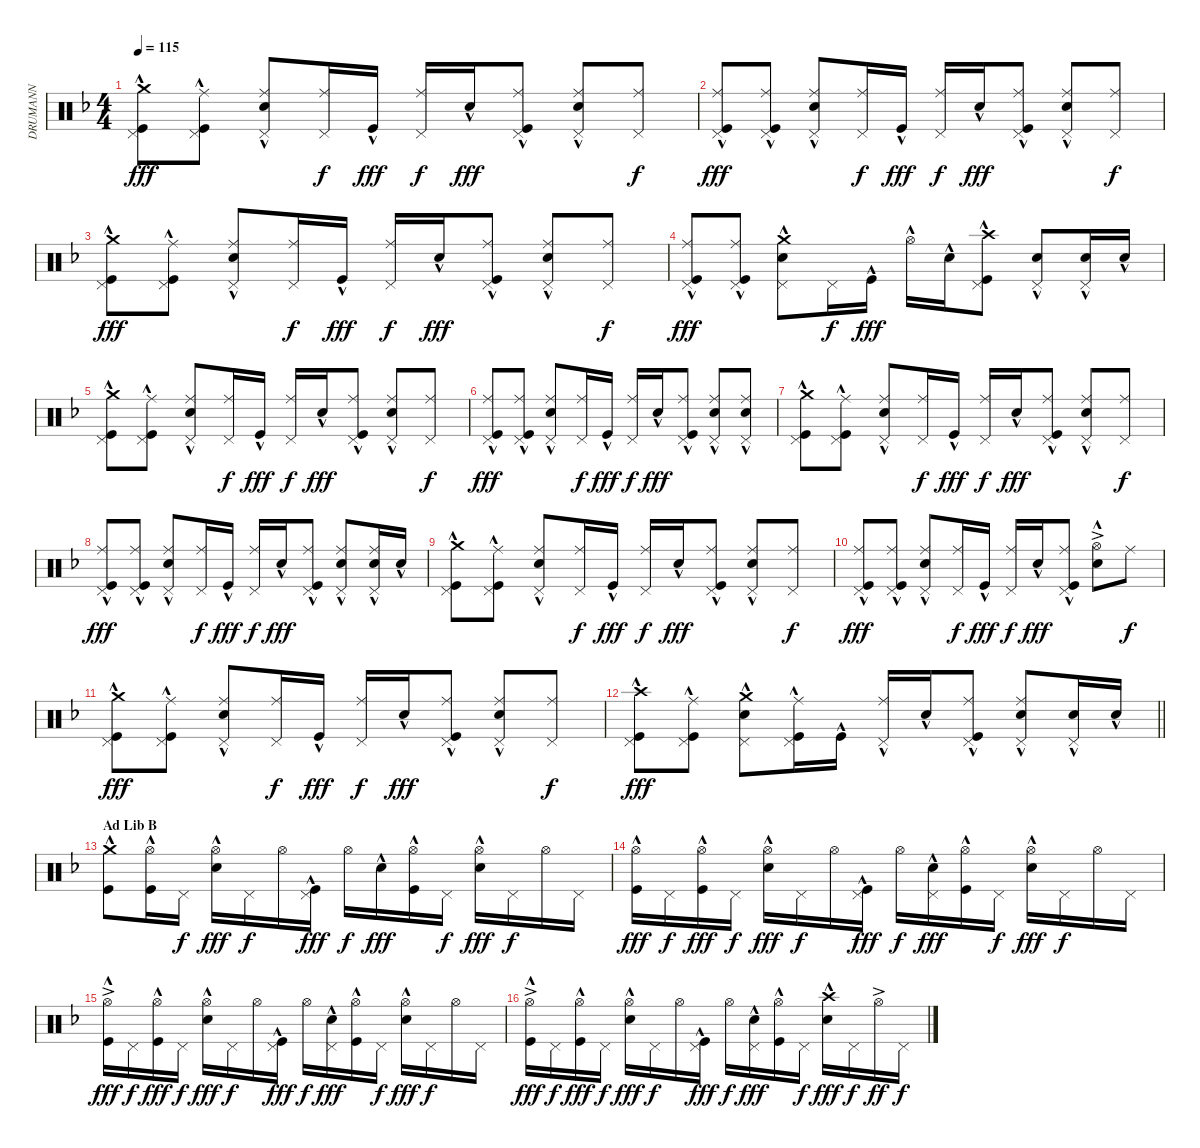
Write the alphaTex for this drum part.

\track ("DRUMANN" "DRUMANN") {instrument percussion}
\staff {score}
\articulation defaults
\ts (4 4)
\tempo 115
\clef neutral
\ks f
("Crash medium (hit)"{hac} "Pedal Hi-Hat (hit)" "Kick (hit)"{hac}).8{dy fff} ("Ride (middle)" "Pedal Hi-Hat (hit)" "Kick (hit)"{hac}).8 ("Ride (middle)" "Snare (hit) 2"{hac} "Pedal Hi-Hat (hit)").8 ("Ride (middle)" "Pedal Hi-Hat (hit)").16{dy f} "Kick (hit)"{hac}.16{dy fff} ("Ride (middle)" "Pedal Hi-Hat (hit)").16{dy f} "Snare (hit) 2"{hac}.16{dy fff} ("Ride (middle)" "Pedal Hi-Hat (hit)" "Kick (hit)"{hac}).8 ("Ride (middle)" "Snare (hit) 2"{hac} "Pedal Hi-Hat (hit)").8 ("Ride (middle)" "Pedal Hi-Hat (hit)").8{dy f} |
("Ride (middle)" "Pedal Hi-Hat (hit)" "Kick (hit)"{hac}).8{dy fff} ("Ride (middle)" "Pedal Hi-Hat (hit)" "Kick (hit)"{hac}).8 ("Ride (middle)" "Snare (hit) 2"{hac} "Pedal Hi-Hat (hit)").8 ("Ride (middle)" "Pedal Hi-Hat (hit)").16{dy f} "Kick (hit)"{hac}.16{dy fff} ("Ride (middle)" "Pedal Hi-Hat (hit)").16{dy f} "Snare (hit) 2"{hac}.16{dy fff} ("Ride (middle)" "Pedal Hi-Hat (hit)" "Kick (hit)"{hac}).8 ("Ride (middle)" "Snare (hit) 2"{hac} "Pedal Hi-Hat (hit)").8 ("Ride (middle)" "Pedal Hi-Hat (hit)").8{dy f} |
("Crash medium (hit)"{hac} "Pedal Hi-Hat (hit)" "Kick (hit)"{hac}).8{dy fff} ("Ride (middle)" "Pedal Hi-Hat (hit)" "Kick (hit)"{hac}).8 ("Ride (middle)" "Snare (hit) 2"{hac} "Pedal Hi-Hat (hit)").8 ("Ride (middle)" "Pedal Hi-Hat (hit)").16{dy f} "Kick (hit)"{hac}.16{dy fff} ("Ride (middle)" "Pedal Hi-Hat (hit)").16{dy f} "Snare (hit) 2"{hac}.16{dy fff} ("Ride (middle)" "Pedal Hi-Hat (hit)" "Kick (hit)"{hac}).8 ("Ride (middle)" "Snare (hit) 2"{hac} "Pedal Hi-Hat (hit)").8 ("Ride (middle)" "Pedal Hi-Hat (hit)").8{dy f} |
("Ride (middle)" "Pedal Hi-Hat (hit)" "Kick (hit)"{hac}).8{dy fff} ("Ride (middle)" "Pedal Hi-Hat (hit)" "Kick (hit)"{hac}).8 ("Crash medium (hit)"{hac} "Snare (hit) 2"{hac} "Pedal Hi-Hat (hit)").8 "Pedal Hi-Hat (hit)".16{dy f} "Kick (hit)"{hac}.16{dy fff} "Hi-Hat (open)"{hac}.16 "Snare (hit) 2"{hac}.16 ("Crash high (hit)"{hac} "Pedal Hi-Hat (hit)" "Kick (hit)"{hac}).8 ("Snare (hit) 2"{hac} "Pedal Hi-Hat (hit)").8 ("Snare (hit) 2"{hac} "Pedal Hi-Hat (hit)").16 "Snare (hit) 2"{hac}.16 |
("Crash medium (hit)"{hac} "Pedal Hi-Hat (hit)" "Kick (hit)"{hac}).8 ("Ride (middle)" "Pedal Hi-Hat (hit)" "Kick (hit)"{hac}).8 ("Ride (middle)" "Snare (hit) 2"{hac} "Pedal Hi-Hat (hit)").8 ("Ride (middle)" "Pedal Hi-Hat (hit)").16{dy f} "Kick (hit)"{hac}.16{dy fff} ("Ride (middle)" "Pedal Hi-Hat (hit)").16{dy f} "Snare (hit) 2"{hac}.16{dy fff} ("Ride (middle)" "Pedal Hi-Hat (hit)" "Kick (hit)"{hac}).8 ("Ride (middle)" "Snare (hit) 2"{hac} "Pedal Hi-Hat (hit)").8 ("Ride (middle)" "Pedal Hi-Hat (hit)").8{dy f} |
("Ride (middle)" "Pedal Hi-Hat (hit)" "Kick (hit)"{hac}).8{dy fff} ("Ride (middle)" "Pedal Hi-Hat (hit)" "Kick (hit)"{hac}).8 ("Ride (middle)" "Snare (hit) 2"{hac} "Pedal Hi-Hat (hit)").8 ("Ride (middle)" "Pedal Hi-Hat (hit)").16{dy f} "Kick (hit)"{hac}.16{dy fff} ("Ride (middle)" "Pedal Hi-Hat (hit)").16{dy f} "Snare (hit) 2"{hac}.16{dy fff} ("Ride (middle)" "Pedal Hi-Hat (hit)" "Kick (hit)"{hac}).8 ("Ride (middle)" "Snare (hit) 2"{hac} "Pedal Hi-Hat (hit)").8 ("Ride (middle)" "Snare (hit) 2"{hac} "Pedal Hi-Hat (hit)").8 |
("Crash medium (hit)"{hac} "Pedal Hi-Hat (hit)" "Kick (hit)"{hac}).8 ("Ride (middle)" "Pedal Hi-Hat (hit)" "Kick (hit)"{hac}).8 ("Ride (middle)" "Snare (hit) 2"{hac} "Pedal Hi-Hat (hit)").8 ("Ride (middle)" "Pedal Hi-Hat (hit)").16{dy f} "Kick (hit)"{hac}.16{dy fff} ("Ride (middle)" "Pedal Hi-Hat (hit)").16{dy f} "Snare (hit) 2"{hac}.16{dy fff} ("Ride (middle)" "Pedal Hi-Hat (hit)" "Kick (hit)"{hac}).8 ("Ride (middle)" "Snare (hit) 2"{hac} "Pedal Hi-Hat (hit)").8 ("Ride (middle)" "Pedal Hi-Hat (hit)").8{dy f} |
("Ride (middle)" "Pedal Hi-Hat (hit)" "Kick (hit)"{hac}).8{dy fff} ("Ride (middle)" "Pedal Hi-Hat (hit)" "Kick (hit)"{hac}).8 ("Ride (middle)" "Snare (hit) 2"{hac} "Pedal Hi-Hat (hit)").8 ("Ride (middle)" "Pedal Hi-Hat (hit)").16{dy f} "Kick (hit)"{hac}.16{dy fff} ("Ride (middle)" "Pedal Hi-Hat (hit)").16{dy f} "Snare (hit) 2"{hac}.16{dy fff} ("Ride (middle)" "Pedal Hi-Hat (hit)" "Kick (hit)"{hac}).8 ("Ride (middle)" "Snare (hit) 2"{hac} "Pedal Hi-Hat (hit)").8 ("Ride (middle)" "Snare (hit) 2"{hac} "Pedal Hi-Hat (hit)").16 "Snare (hit) 2"{hac}.16 |
("Crash medium (hit)"{hac} "Pedal Hi-Hat (hit)" "Kick (hit)"{hac}).8 ("Ride (middle)" "Pedal Hi-Hat (hit)" "Kick (hit)"{hac}).8 ("Ride (middle)" "Snare (hit) 2"{hac} "Pedal Hi-Hat (hit)").8 ("Ride (middle)" "Pedal Hi-Hat (hit)").16{dy f} "Kick (hit)"{hac}.16{dy fff} ("Ride (middle)" "Pedal Hi-Hat (hit)").16{dy f} "Snare (hit) 2"{hac}.16{dy fff} ("Ride (middle)" "Pedal Hi-Hat (hit)" "Kick (hit)"{hac}).8 ("Ride (middle)" "Snare (hit) 2"{hac} "Pedal Hi-Hat (hit)").8 ("Ride (middle)" "Pedal Hi-Hat (hit)").8{dy f} |
("Ride (middle)" "Pedal Hi-Hat (hit)" "Kick (hit)"{hac}).8{dy fff} ("Ride (middle)" "Pedal Hi-Hat (hit)" "Kick (hit)"{hac}).8 ("Ride (middle)" "Snare (hit) 2"{hac} "Pedal Hi-Hat (hit)").8 ("Ride (middle)" "Pedal Hi-Hat (hit)").16{dy f} "Kick (hit)"{hac}.16{dy fff} ("Ride (middle)" "Pedal Hi-Hat (hit)").16{dy f} "Snare (hit) 2"{hac}.16{dy fff} ("Ride (middle)" "Pedal Hi-Hat (hit)" "Kick (hit)"{hac}).8 ("Hi-Hat (open)"{ac} "Snare (hit) 2"{hac}).8 "Ride (middle)".8{dy f} |
("Crash medium (hit)"{hac} "Pedal Hi-Hat (hit)" "Kick (hit)"{hac}).8{dy fff} ("Ride (middle)" "Pedal Hi-Hat (hit)" "Kick (hit)"{hac}).8 ("Ride (middle)" "Snare (hit) 2"{hac} "Pedal Hi-Hat (hit)").8 ("Ride (middle)" "Pedal Hi-Hat (hit)").16{dy f} "Kick (hit)"{hac}.16{dy fff} ("Ride (middle)" "Pedal Hi-Hat (hit)").16{dy f} "Snare (hit) 2"{hac}.16{dy fff} ("Ride (middle)" "Pedal Hi-Hat (hit)" "Kick (hit)"{hac}).8 ("Ride (middle)" "Snare (hit) 2"{hac} "Pedal Hi-Hat (hit)").8 ("Ride (middle)" "Pedal Hi-Hat (hit)").8{dy f} |
\barLineRight lightlight
("Crash high (hit)"{hac} "Pedal Hi-Hat (hit)" "Kick (hit)"{hac}).8{dy fff} ("Ride (middle)" "Pedal Hi-Hat (hit)" "Kick (hit)"{hac}).8 ("Crash medium (hit)"{hac} "Snare (hit) 2"{hac} "Pedal Hi-Hat (hit)").8 ("Ride (middle)" "Pedal Hi-Hat (hit)" "Kick (hit)"{hac}).16 "Kick (hit)"{hac}.16 ("Ride (middle)"{hac} "Pedal Hi-Hat (hit)").16 "Snare (hit) 2"{hac}.16 ("Ride (middle)"{hac} "Pedal Hi-Hat (hit)" "Kick (hit)"{hac}).8 ("Ride (middle)" "Snare (hit) 2"{hac} "Pedal Hi-Hat (hit)").8 ("Snare (hit) 2"{hac} "Pedal Hi-Hat (hit)").16 "Snare (hit) 2"{hac}.16 |
\section ("" "Ad Lib B")
("Crash medium (hit)"{hac} "Kick (hit)"{hac}).8 ("Hi-Hat (open)" "Kick (hit)"{hac}).16 "Pedal Hi-Hat (hit)".16{dy f} ("Hi-Hat (open)" "Snare (hit) 2"{hac}).16{dy fff} "Pedal Hi-Hat (hit)".16{dy f} "Hi-Hat (open)".16 ("Pedal Hi-Hat (hit)" "Kick (hit)"{hac}).16{dy fff} "Hi-Hat (open)".16{dy f} "Snare (hit) 2"{hac}.16{dy fff} ("Hi-Hat (open)" "Kick (hit)"{hac}).16 "Pedal Hi-Hat (hit)".16{dy f} ("Hi-Hat (open)" "Snare (hit) 2"{hac}).16{dy fff} "Pedal Hi-Hat (hit)".16{dy f} "Hi-Hat (open)".16 "Pedal Hi-Hat (hit)".16 |
("Hi-Hat (open)" "Kick (hit)"{hac}).16{dy fff} "Pedal Hi-Hat (hit)".16{dy f} ("Hi-Hat (open)" "Kick (hit)"{hac}).16{dy fff} "Pedal Hi-Hat (hit)".16{dy f} ("Hi-Hat (open)" "Snare (hit) 2"{hac}).16{dy fff} "Pedal Hi-Hat (hit)".16{dy f} "Hi-Hat (open)".16 ("Pedal Hi-Hat (hit)" "Kick (hit)"{hac}).16{dy fff} "Hi-Hat (open)".16{dy f} ("Snare (hit) 2"{hac} "Pedal Hi-Hat (hit)").16{dy fff} ("Hi-Hat (open)" "Kick (hit)"{hac}).16 "Pedal Hi-Hat (hit)".16{dy f} ("Hi-Hat (open)" "Snare (hit) 2"{hac}).16{dy fff} "Pedal Hi-Hat (hit)".16{dy f} "Hi-Hat (open)".16 "Pedal Hi-Hat (hit)".16 |
("Hi-Hat (open)"{ac} "Kick (hit)"{hac}).16{dy fff} "Pedal Hi-Hat (hit)".16{dy f} ("Hi-Hat (open)" "Kick (hit)"{hac}).16{dy fff} "Pedal Hi-Hat (hit)".16{dy f} ("Hi-Hat (open)" "Snare (hit) 2"{hac}).16{dy fff} "Pedal Hi-Hat (hit)".16{dy f} "Hi-Hat (open)".16 ("Pedal Hi-Hat (hit)" "Kick (hit)"{hac}).16{dy fff} "Hi-Hat (open)".16{dy f} ("Snare (hit) 2"{hac} "Pedal Hi-Hat (hit)").16{dy fff} ("Hi-Hat (open)" "Kick (hit)"{hac}).16 "Pedal Hi-Hat (hit)".16{dy f} ("Hi-Hat (open)" "Snare (hit) 2"{hac}).16{dy fff} "Pedal Hi-Hat (hit)".16{dy f} "Hi-Hat (open)".16 "Pedal Hi-Hat (hit)".16 |
("Hi-Hat (open)"{ac} "Kick (hit)"{hac}).16{dy fff} "Pedal Hi-Hat (hit)".16{dy f} ("Hi-Hat (open)" "Kick (hit)"{hac}).16{dy fff} "Pedal Hi-Hat (hit)".16{dy f} ("Hi-Hat (open)" "Snare (hit) 2"{hac}).16{dy fff} "Pedal Hi-Hat (hit)".16{dy f} "Hi-Hat (open)".16 ("Pedal Hi-Hat (hit)" "Kick (hit)"{hac}).16{dy fff} "Hi-Hat (open)".16{dy f} ("Snare (hit) 2"{hac} "Pedal Hi-Hat (hit)").16{dy fff} ("Hi-Hat (open)" "Kick (hit)"{hac}).16 "Pedal Hi-Hat (hit)".16{dy f} ("Crash high (hit)"{hac} "Snare (hit) 2"{hac}).16{dy fff} "Pedal Hi-Hat (hit)".16{dy f} "Hi-Hat (open)"{ac}.16{dy ff} "Pedal Hi-Hat (hit)".16{dy f}
